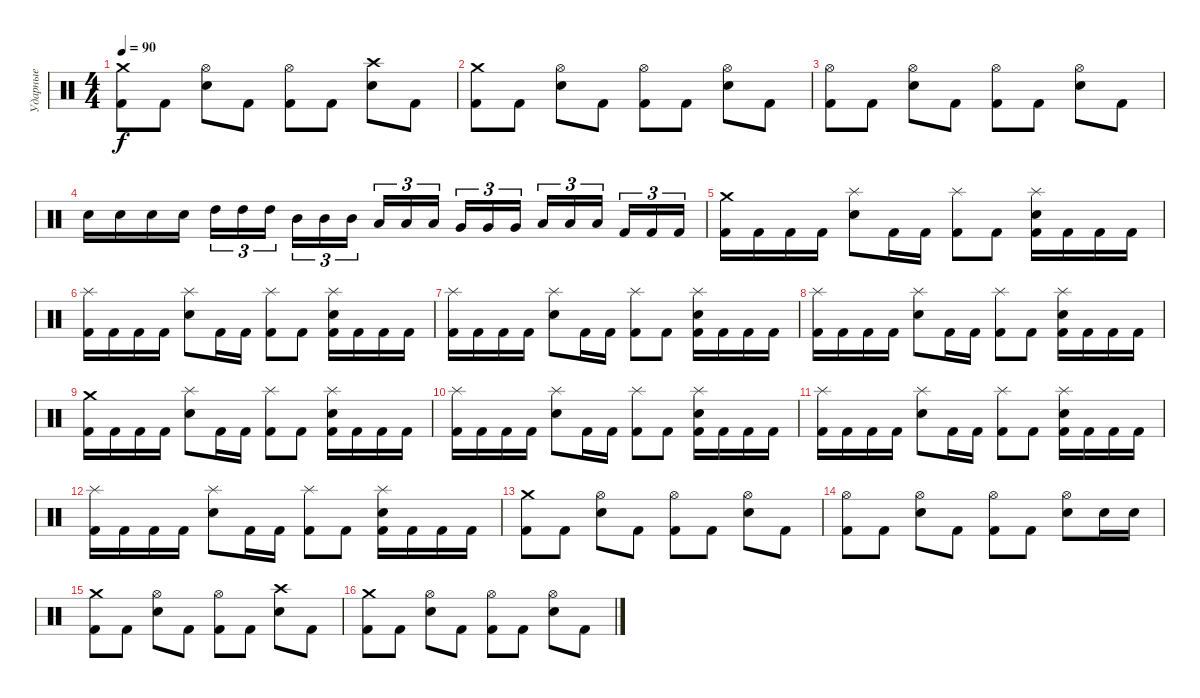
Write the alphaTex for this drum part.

\track ("Ударные" "Ударные") {instrument percussion}
\staff {score}
\articulation defaults
\ts (4 4)
\tempo 90
\clef neutral
\ks c
("Crash medium (hit)" "Kick (hit) 2").8{dy f} "Kick (hit) 2".8 ("Hi-Hat (open)" "Electric Snare (hit)").8 "Kick (hit) 2".8 ("Hi-Hat (open)" "Kick (hit) 2").8 "Kick (hit) 2".8 ("Crash high (hit)" "Electric Snare (hit)").8 "Kick (hit) 2".8 |
("Crash medium (hit)" "Kick (hit) 2").8 "Kick (hit) 2".8 ("Hi-Hat (open)" "Electric Snare (hit)").8 "Kick (hit) 2".8 ("Hi-Hat (open)" "Kick (hit) 2").8 "Kick (hit) 2".8 ("Hi-Hat (open)" "Electric Snare (hit)").8 "Kick (hit) 2".8 |
("Hi-Hat (open)" "Kick (hit) 2").8 "Kick (hit) 2".8 ("Hi-Hat (open)" "Electric Snare (hit)").8 "Kick (hit) 2".8 ("Hi-Hat (open)" "Kick (hit) 2").8 "Kick (hit) 2".8 ("Hi-Hat (open)" "Electric Snare (hit)").8 "Kick (hit) 2".8 |
"Electric Snare (hit)".16 "Electric Snare (hit)".16 "Electric Snare (hit)".16 "Electric Snare (hit)".16 "High Tom (hit)".16{tu (3 2)} "High Tom (hit)".16{tu (3 2)} "High Tom (hit)".16{tu (3 2) beam splitsecondary} "Mid Tom (hit)".16{tu (3 2)} "Mid Tom (hit)".16{tu (3 2)} "Mid Tom (hit)".16{tu (3 2)} "Low Tom (hit)".16{tu (3 2)} "Low Tom (hit)".16{tu (3 2)} "Low Tom (hit)".16{tu (3 2) beam splitsecondary} "Very Low Tom (hit)".16{tu (3 2)} "Very Low Tom (hit)".16{tu (3 2)} "Very Low Tom (hit)".16{tu (3 2)} "Low Floor Tom (hit)".16{tu (3 2)} "Low Floor Tom (hit)".16{tu (3 2)} "Low Floor Tom (hit)".16{tu (3 2) beam splitsecondary} "Kick (hit) 2".16{tu (3 2)} "Kick (hit) 2".16{tu (3 2)} "Kick (hit) 2".16{tu (3 2)} |
("Crash medium (hit)" "Kick (hit) 2").16 "Kick (hit) 2".16 "Kick (hit) 2".16 "Kick (hit) 2".16 ("Splash (hit)" "Electric Snare (hit)").8 "Kick (hit) 2".16 "Kick (hit) 2".16 ("Splash (hit)" "Kick (hit) 2").8 "Kick (hit) 2".8 ("Splash (hit)" "Electric Snare (hit)" "Kick (hit) 2").16 "Kick (hit) 2".16 "Kick (hit) 2".16 "Kick (hit) 2".16 |
("Splash (hit)" "Kick (hit) 2").16 "Kick (hit) 2".16 "Kick (hit) 2".16 "Kick (hit) 2".16 ("Splash (hit)" "Electric Snare (hit)").8 "Kick (hit) 2".16 "Kick (hit) 2".16 ("Splash (hit)" "Kick (hit) 2").8 "Kick (hit) 2".8 ("Splash (hit)" "Electric Snare (hit)" "Kick (hit) 2").16 "Kick (hit) 2".16 "Kick (hit) 2".16 "Kick (hit) 2".16 |
("Splash (hit)" "Kick (hit) 2").16 "Kick (hit) 2".16 "Kick (hit) 2".16 "Kick (hit) 2".16 ("Splash (hit)" "Electric Snare (hit)").8 "Kick (hit) 2".16 "Kick (hit) 2".16 ("Splash (hit)" "Kick (hit) 2").8 "Kick (hit) 2".8 ("Splash (hit)" "Electric Snare (hit)" "Kick (hit) 2").16 "Kick (hit) 2".16 "Kick (hit) 2".16 "Kick (hit) 2".16 |
("Splash (hit)" "Kick (hit) 2").16 "Kick (hit) 2".16 "Kick (hit) 2".16 "Kick (hit) 2".16 ("Splash (hit)" "Electric Snare (hit)").8 "Kick (hit) 2".16 "Kick (hit) 2".16 ("Splash (hit)" "Kick (hit) 2").8 "Kick (hit) 2".8 ("Splash (hit)" "Electric Snare (hit)" "Kick (hit) 2").16 "Kick (hit) 2".16 "Kick (hit) 2".16 "Kick (hit) 2".16 |
("Crash medium (hit)" "Kick (hit) 2").16 "Kick (hit) 2".16 "Kick (hit) 2".16 "Kick (hit) 2".16 ("Splash (hit)" "Electric Snare (hit)").8 "Kick (hit) 2".16 "Kick (hit) 2".16 ("Splash (hit)" "Kick (hit) 2").8 "Kick (hit) 2".8 ("Splash (hit)" "Electric Snare (hit)" "Kick (hit) 2").16 "Kick (hit) 2".16 "Kick (hit) 2".16 "Kick (hit) 2".16 |
("Splash (hit)" "Kick (hit) 2").16 "Kick (hit) 2".16 "Kick (hit) 2".16 "Kick (hit) 2".16 ("Splash (hit)" "Electric Snare (hit)").8 "Kick (hit) 2".16 "Kick (hit) 2".16 ("Splash (hit)" "Kick (hit) 2").8 "Kick (hit) 2".8 ("Splash (hit)" "Electric Snare (hit)" "Kick (hit) 2").16 "Kick (hit) 2".16 "Kick (hit) 2".16 "Kick (hit) 2".16 |
("Splash (hit)" "Kick (hit) 2").16 "Kick (hit) 2".16 "Kick (hit) 2".16 "Kick (hit) 2".16 ("Splash (hit)" "Electric Snare (hit)").8 "Kick (hit) 2".16 "Kick (hit) 2".16 ("Splash (hit)" "Kick (hit) 2").8 "Kick (hit) 2".8 ("Splash (hit)" "Electric Snare (hit)" "Kick (hit) 2").16 "Kick (hit) 2".16 "Kick (hit) 2".16 "Kick (hit) 2".16 |
("Splash (hit)" "Kick (hit) 2").16 "Kick (hit) 2".16 "Kick (hit) 2".16 "Kick (hit) 2".16 ("Splash (hit)" "Electric Snare (hit)").8 "Kick (hit) 2".16 "Kick (hit) 2".16 ("Splash (hit)" "Kick (hit) 2").8 "Kick (hit) 2".8 ("Splash (hit)" "Electric Snare (hit)" "Kick (hit) 2").16 "Kick (hit) 2".16 "Kick (hit) 2".16 "Kick (hit) 2".16 |
("Crash medium (hit)" "Kick (hit) 2").8 "Kick (hit) 2".8 ("Hi-Hat (open)" "Electric Snare (hit)").8 "Kick (hit) 2".8 ("Hi-Hat (open)" "Kick (hit) 2").8 "Kick (hit) 2".8 ("Hi-Hat (open)" "Electric Snare (hit)").8 "Kick (hit) 2".8 |
("Hi-Hat (open)" "Kick (hit) 2").8 "Kick (hit) 2".8 ("Hi-Hat (open)" "Electric Snare (hit)").8 "Kick (hit) 2".8 ("Hi-Hat (open)" "Kick (hit) 2").8 "Kick (hit) 2".8 ("Hi-Hat (open)" "Electric Snare (hit)").8 "Electric Snare (hit)".16 "Electric Snare (hit)".16 |
("Crash medium (hit)" "Kick (hit) 2").8 "Kick (hit) 2".8 ("Hi-Hat (open)" "Electric Snare (hit)").8 "Kick (hit) 2".8 ("Hi-Hat (open)" "Kick (hit) 2").8 "Kick (hit) 2".8 ("Crash high (hit)" "Electric Snare (hit)").8 "Kick (hit) 2".8 |
("Crash medium (hit)" "Kick (hit) 2").8 "Kick (hit) 2".8 ("Hi-Hat (open)" "Electric Snare (hit)").8 "Kick (hit) 2".8 ("Hi-Hat (open)" "Kick (hit) 2").8 "Kick (hit) 2".8 ("Hi-Hat (open)" "Electric Snare (hit)").8 "Kick (hit) 2".8
